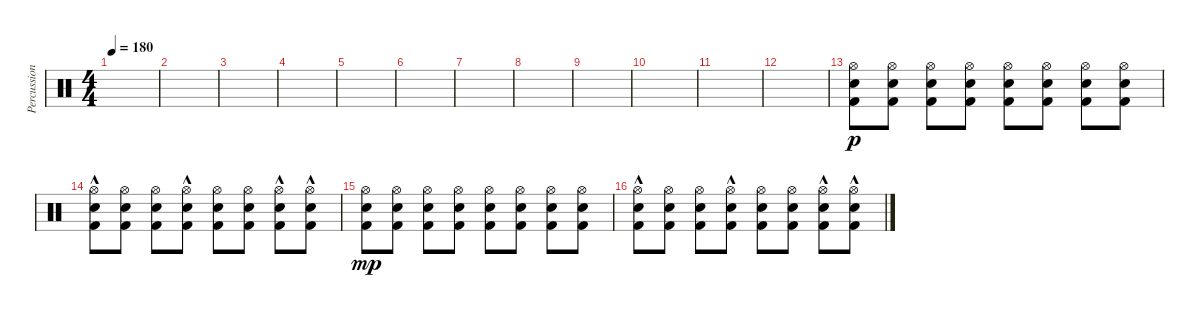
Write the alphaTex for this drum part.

\track ("Percussion" "Percussion") {instrument percussion}
\staff {score}
\articulation defaults
\ts (4 4)
\tempo 180
\clef neutral
\ks c
|
|
|
|
|
|
|
|
|
|
|
|
("Hi-Hat (open)" "Electric Snare (hit)" "Kick (hit) 2").8{dy p} ("Hi-Hat (open)" "Electric Snare (hit)" "Kick (hit) 2").8 ("Hi-Hat (open)" "Electric Snare (hit)" "Kick (hit) 2").8 ("Hi-Hat (open)" "Electric Snare (hit)" "Kick (hit) 2").8 ("Hi-Hat (open)" "Electric Snare (hit)" "Kick (hit) 2").8 ("Hi-Hat (open)" "Electric Snare (hit)" "Kick (hit) 2").8 ("Hi-Hat (open)" "Electric Snare (hit)" "Kick (hit) 2").8 ("Hi-Hat (open)" "Electric Snare (hit)" "Kick (hit) 2").8 |
("Hi-Hat (open)" "Electric Snare (hit)"{hac} "Kick (hit) 2").8 ("Hi-Hat (open)" "Electric Snare (hit)" "Kick (hit) 2").8 ("Hi-Hat (open)" "Electric Snare (hit)" "Kick (hit) 2").8 ("Hi-Hat (open)" "Electric Snare (hit)"{hac} "Kick (hit) 2").8 ("Hi-Hat (open)" "Electric Snare (hit)" "Kick (hit) 2").8 ("Hi-Hat (open)" "Electric Snare (hit)" "Kick (hit) 2").8 ("Hi-Hat (open)" "Electric Snare (hit)"{hac} "Kick (hit) 2").8 ("Hi-Hat (open)" "Electric Snare (hit)"{hac} "Kick (hit) 2").8 |
("Hi-Hat (open)" "Electric Snare (hit)" "Kick (hit) 2").8{dy mp} ("Hi-Hat (open)" "Electric Snare (hit)" "Kick (hit) 2").8 ("Hi-Hat (open)" "Electric Snare (hit)" "Kick (hit) 2").8 ("Hi-Hat (open)" "Electric Snare (hit)" "Kick (hit) 2").8 ("Hi-Hat (open)" "Electric Snare (hit)" "Kick (hit) 2").8 ("Hi-Hat (open)" "Electric Snare (hit)" "Kick (hit) 2").8 ("Hi-Hat (open)" "Electric Snare (hit)" "Kick (hit) 2").8 ("Hi-Hat (open)" "Electric Snare (hit)" "Kick (hit) 2").8 |
("Hi-Hat (open)" "Electric Snare (hit)"{hac} "Kick (hit) 2").8 ("Hi-Hat (open)" "Electric Snare (hit)" "Kick (hit) 2").8 ("Hi-Hat (open)" "Electric Snare (hit)" "Kick (hit) 2").8 ("Hi-Hat (open)" "Electric Snare (hit)"{hac} "Kick (hit) 2").8 ("Hi-Hat (open)" "Electric Snare (hit)" "Kick (hit) 2").8 ("Hi-Hat (open)" "Electric Snare (hit)" "Kick (hit) 2").8 ("Hi-Hat (open)" "Electric Snare (hit)"{hac} "Kick (hit) 2").8 ("Hi-Hat (open)" "Electric Snare (hit)"{hac} "Kick (hit) 2").8
